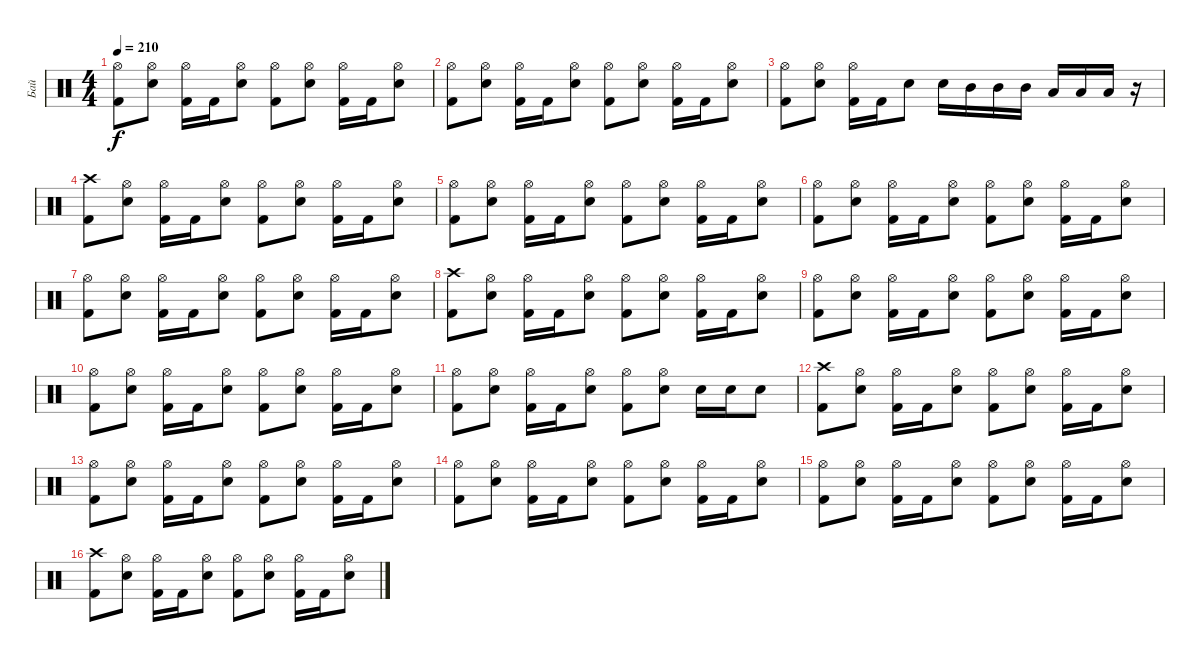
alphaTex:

\track ("Бай" "Бай") {instrument percussion}
\staff {score}
\articulation defaults
\ts (4 4)
\tempo 210
\clef neutral
\ks c
("Hi-Hat (open)" "Kick (hit) 2").8{dy f} ("Hi-Hat (open)" "Electric Snare (hit)").8 ("Hi-Hat (open)" "Kick (hit) 2").16 "Kick (hit) 2".16 ("Hi-Hat (open)" "Electric Snare (hit)").8 ("Hi-Hat (open)" "Kick (hit) 2").8 ("Hi-Hat (open)" "Electric Snare (hit)").8 ("Hi-Hat (open)" "Kick (hit) 2").16 "Kick (hit) 2".16 ("Hi-Hat (open)" "Electric Snare (hit)").8 |
("Hi-Hat (open)" "Kick (hit) 2").8 ("Hi-Hat (open)" "Electric Snare (hit)").8 ("Hi-Hat (open)" "Kick (hit) 2").16 "Kick (hit) 2".16 ("Hi-Hat (open)" "Electric Snare (hit)").8 ("Hi-Hat (open)" "Kick (hit) 2").8 ("Hi-Hat (open)" "Electric Snare (hit)").8 ("Hi-Hat (open)" "Kick (hit) 2").16 "Kick (hit) 2".16 ("Hi-Hat (open)" "Electric Snare (hit)").8 |
("Hi-Hat (open)" "Kick (hit) 2").8 ("Hi-Hat (open)" "Electric Snare (hit)").8 ("Hi-Hat (open)" "Kick (hit) 2").16 "Kick (hit) 2".16 "Electric Snare (hit)".8 "Electric Snare (hit)".16 "Mid Tom (hit)".16 "Mid Tom (hit)".16 "Mid Tom (hit)".16 "Low Tom (hit)".16 "Low Tom (hit)".16 "Low Tom (hit)".16 r.16 |
("Crash high (hit)" "Kick (hit) 2").8 ("Hi-Hat (open)" "Electric Snare (hit)").8 ("Hi-Hat (open)" "Kick (hit) 2").16 "Kick (hit) 2".16 ("Hi-Hat (open)" "Electric Snare (hit)").8 ("Hi-Hat (open)" "Kick (hit) 2").8 ("Hi-Hat (open)" "Electric Snare (hit)").8 ("Hi-Hat (open)" "Kick (hit) 2").16 "Kick (hit) 2".16 ("Hi-Hat (open)" "Electric Snare (hit)").8 |
("Hi-Hat (open)" "Kick (hit) 2").8 ("Hi-Hat (open)" "Electric Snare (hit)").8 ("Hi-Hat (open)" "Kick (hit) 2").16 "Kick (hit) 2".16 ("Hi-Hat (open)" "Electric Snare (hit)").8 ("Hi-Hat (open)" "Kick (hit) 2").8 ("Hi-Hat (open)" "Electric Snare (hit)").8 ("Hi-Hat (open)" "Kick (hit) 2").16 "Kick (hit) 2".16 ("Hi-Hat (open)" "Electric Snare (hit)").8 |
("Hi-Hat (open)" "Kick (hit) 2").8 ("Hi-Hat (open)" "Electric Snare (hit)").8 ("Hi-Hat (open)" "Kick (hit) 2").16 "Kick (hit) 2".16 ("Hi-Hat (open)" "Electric Snare (hit)").8 ("Hi-Hat (open)" "Kick (hit) 2").8 ("Hi-Hat (open)" "Electric Snare (hit)").8 ("Hi-Hat (open)" "Kick (hit) 2").16 "Kick (hit) 2".16 ("Hi-Hat (open)" "Electric Snare (hit)").8 |
("Hi-Hat (open)" "Kick (hit) 2").8 ("Hi-Hat (open)" "Electric Snare (hit)").8 ("Hi-Hat (open)" "Kick (hit) 2").16 "Kick (hit) 2".16 ("Hi-Hat (open)" "Electric Snare (hit)").8 ("Hi-Hat (open)" "Kick (hit) 2").8 ("Hi-Hat (open)" "Electric Snare (hit)").8 ("Hi-Hat (open)" "Kick (hit) 2").16 "Kick (hit) 2".16 ("Hi-Hat (open)" "Electric Snare (hit)").8 |
("Crash high (hit)" "Kick (hit) 2").8 ("Hi-Hat (open)" "Electric Snare (hit)").8 ("Hi-Hat (open)" "Kick (hit) 2").16 "Kick (hit) 2".16 ("Hi-Hat (open)" "Electric Snare (hit)").8 ("Hi-Hat (open)" "Kick (hit) 2").8 ("Hi-Hat (open)" "Electric Snare (hit)").8 ("Hi-Hat (open)" "Kick (hit) 2").16 "Kick (hit) 2".16 ("Hi-Hat (open)" "Electric Snare (hit)").8 |
("Hi-Hat (open)" "Kick (hit) 2").8 ("Hi-Hat (open)" "Electric Snare (hit)").8 ("Hi-Hat (open)" "Kick (hit) 2").16 "Kick (hit) 2".16 ("Hi-Hat (open)" "Electric Snare (hit)").8 ("Hi-Hat (open)" "Kick (hit) 2").8 ("Hi-Hat (open)" "Electric Snare (hit)").8 ("Hi-Hat (open)" "Kick (hit) 2").16 "Kick (hit) 2".16 ("Hi-Hat (open)" "Electric Snare (hit)").8 |
("Hi-Hat (open)" "Kick (hit) 2").8 ("Hi-Hat (open)" "Electric Snare (hit)").8 ("Hi-Hat (open)" "Kick (hit) 2").16 "Kick (hit) 2".16 ("Hi-Hat (open)" "Electric Snare (hit)").8 ("Hi-Hat (open)" "Kick (hit) 2").8 ("Hi-Hat (open)" "Electric Snare (hit)").8 ("Hi-Hat (open)" "Kick (hit) 2").16 "Kick (hit) 2".16 ("Hi-Hat (open)" "Electric Snare (hit)").8 |
("Hi-Hat (open)" "Kick (hit) 2").8 ("Hi-Hat (open)" "Electric Snare (hit)").8 ("Hi-Hat (open)" "Kick (hit) 2").16 "Kick (hit) 2".16 ("Hi-Hat (open)" "Electric Snare (hit)").8 ("Hi-Hat (open)" "Kick (hit) 2").8 ("Hi-Hat (open)" "Electric Snare (hit)").8 "Electric Snare (hit)".16 "Electric Snare (hit)".16 "Electric Snare (hit)".8 |
("Crash high (hit)" "Kick (hit) 2").8 ("Hi-Hat (open)" "Electric Snare (hit)").8 ("Hi-Hat (open)" "Kick (hit) 2").16 "Kick (hit) 2".16 ("Hi-Hat (open)" "Electric Snare (hit)").8 ("Hi-Hat (open)" "Kick (hit) 2").8 ("Hi-Hat (open)" "Electric Snare (hit)").8 ("Hi-Hat (open)" "Kick (hit) 2").16 "Kick (hit) 2".16 ("Hi-Hat (open)" "Electric Snare (hit)").8 |
("Hi-Hat (open)" "Kick (hit) 2").8 ("Hi-Hat (open)" "Electric Snare (hit)").8 ("Hi-Hat (open)" "Kick (hit) 2").16 "Kick (hit) 2".16 ("Hi-Hat (open)" "Electric Snare (hit)").8 ("Hi-Hat (open)" "Kick (hit) 2").8 ("Hi-Hat (open)" "Electric Snare (hit)").8 ("Hi-Hat (open)" "Kick (hit) 2").16 "Kick (hit) 2".16 ("Hi-Hat (open)" "Electric Snare (hit)").8 |
("Hi-Hat (open)" "Kick (hit) 2").8 ("Hi-Hat (open)" "Electric Snare (hit)").8 ("Hi-Hat (open)" "Kick (hit) 2").16 "Kick (hit) 2".16 ("Hi-Hat (open)" "Electric Snare (hit)").8 ("Hi-Hat (open)" "Kick (hit) 2").8 ("Hi-Hat (open)" "Electric Snare (hit)").8 ("Hi-Hat (open)" "Kick (hit) 2").16 "Kick (hit) 2".16 ("Hi-Hat (open)" "Electric Snare (hit)").8 |
("Hi-Hat (open)" "Kick (hit) 2").8 ("Hi-Hat (open)" "Electric Snare (hit)").8 ("Hi-Hat (open)" "Kick (hit) 2").16 "Kick (hit) 2".16 ("Hi-Hat (open)" "Electric Snare (hit)").8 ("Hi-Hat (open)" "Kick (hit) 2").8 ("Hi-Hat (open)" "Electric Snare (hit)").8 ("Hi-Hat (open)" "Kick (hit) 2").16 "Kick (hit) 2".16 ("Hi-Hat (open)" "Electric Snare (hit)").8 |
("Crash high (hit)" "Kick (hit) 2").8 ("Hi-Hat (open)" "Electric Snare (hit)").8 ("Hi-Hat (open)" "Kick (hit) 2").16 "Kick (hit) 2".16 ("Hi-Hat (open)" "Electric Snare (hit)").8 ("Hi-Hat (open)" "Kick (hit) 2").8 ("Hi-Hat (open)" "Electric Snare (hit)").8 ("Hi-Hat (open)" "Kick (hit) 2").16 "Kick (hit) 2".16 ("Hi-Hat (open)" "Electric Snare (hit)").8
